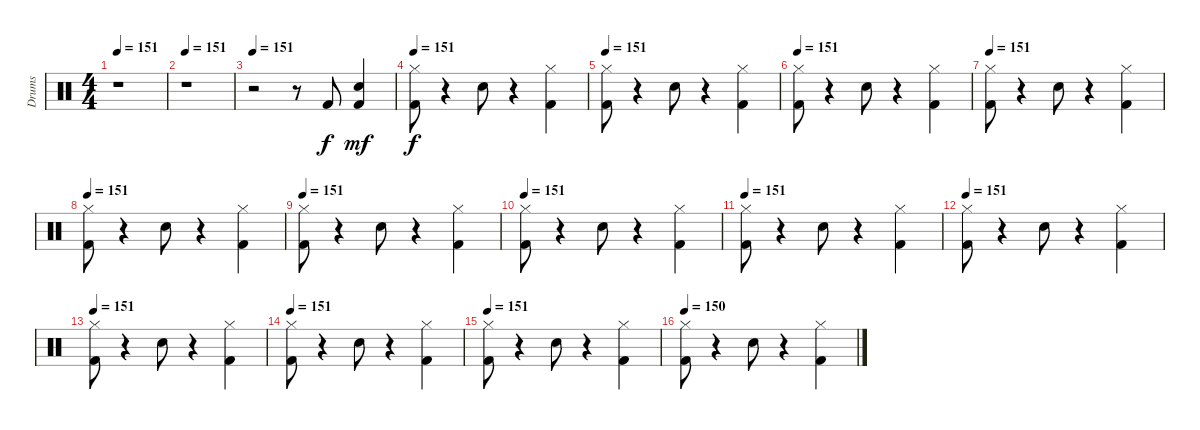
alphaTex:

\track ("Drums" "Drums") {instrument percussion}
\staff {score}
\articulation defaults
\ts (4 4)
\tempo 151
\clef neutral
\ks c
r.1{dy f} |
\tempo 151
r.1 |
\tempo 151
r.2 r.8 "Kick (hit) 2".8 ("Kick (hit) 2" "Snare (hit) 2").4{dy mf} |
\tempo 151
("Kick (hit) 2" "Hi-Hat (closed)").8{dy f} r.4 "Snare (hit) 2".8 r.4 ("Kick (hit) 2" "Hi-Hat (closed)").4 |
\tempo 151
("Kick (hit) 2" "Hi-Hat (closed)").8 r.4 "Snare (hit) 2".8 r.4 ("Kick (hit) 2" "Hi-Hat (closed)").4 |
\tempo 151
("Kick (hit) 2" "Hi-Hat (closed)").8 r.4 "Snare (hit) 2".8 r.4 ("Kick (hit) 2" "Hi-Hat (closed)").4 |
\tempo 151
("Kick (hit) 2" "Hi-Hat (closed)").8 r.4 "Snare (hit) 2".8 r.4 ("Kick (hit) 2" "Hi-Hat (closed)").4 |
\tempo 151
("Kick (hit) 2" "Hi-Hat (closed)").8 r.4 "Snare (hit) 2".8 r.4 ("Kick (hit) 2" "Hi-Hat (closed)").4 |
\tempo 151
("Kick (hit) 2" "Hi-Hat (closed)").8 r.4 "Snare (hit) 2".8 r.4 ("Kick (hit) 2" "Hi-Hat (closed)").4 |
\tempo 151
("Kick (hit) 2" "Hi-Hat (closed)").8 r.4 "Snare (hit) 2".8 r.4 ("Kick (hit) 2" "Hi-Hat (closed)").4 |
\tempo 151
("Kick (hit) 2" "Hi-Hat (closed)").8 r.4 "Snare (hit) 2".8 r.4 ("Kick (hit) 2" "Hi-Hat (closed)").4 |
\tempo 151
("Kick (hit) 2" "Hi-Hat (closed)").8 r.4 "Snare (hit) 2".8 r.4 ("Kick (hit) 2" "Hi-Hat (closed)").4 |
\tempo 151
("Kick (hit) 2" "Hi-Hat (closed)").8 r.4 "Snare (hit) 2".8 r.4 ("Kick (hit) 2" "Hi-Hat (closed)").4 |
\tempo 151
("Kick (hit) 2" "Hi-Hat (closed)").8 r.4 "Snare (hit) 2".8 r.4 ("Kick (hit) 2" "Hi-Hat (closed)").4 |
\tempo 151
("Kick (hit) 2" "Hi-Hat (closed)").8 r.4 "Snare (hit) 2".8 r.4 ("Kick (hit) 2" "Hi-Hat (closed)").4 |
\tempo 150
("Kick (hit) 2" "Hi-Hat (closed)").8 r.4 "Snare (hit) 2".8 r.4 ("Kick (hit) 2" "Hi-Hat (closed)").4
